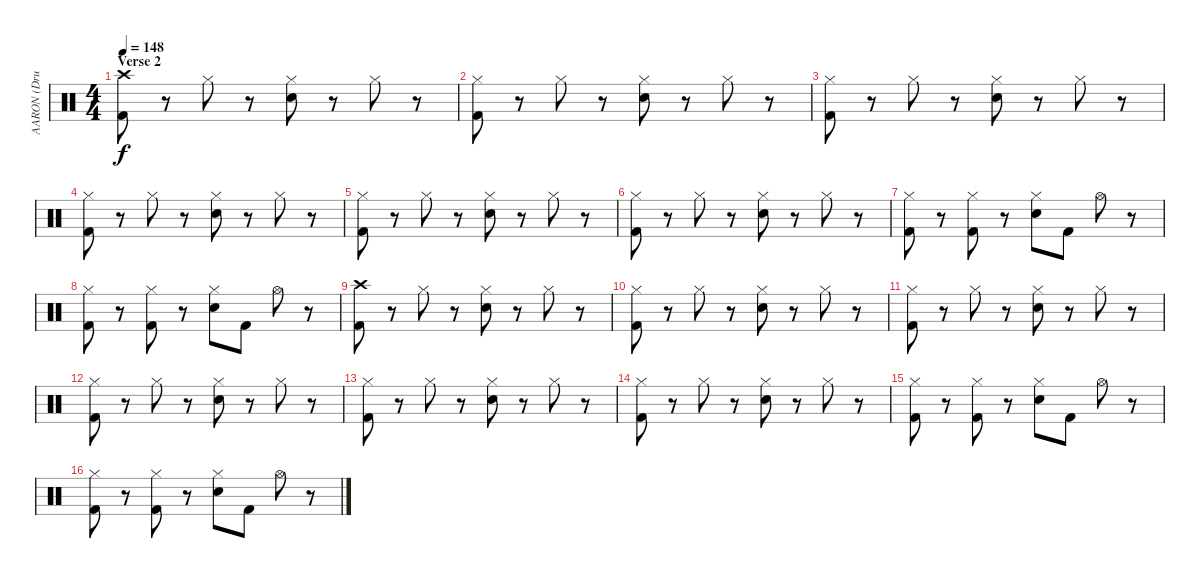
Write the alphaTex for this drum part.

\track ("AARON (Drums)" "AARON (Dru") {instrument percussion}
\staff {score}
\articulation defaults
\ts (4 4)
\section ("" "Verse 2")
\tempo 148
\clef neutral
\ks c
("Crash high (hit)" "Kick (hit) 2").8{dy f} r.8 "Hi-Hat (closed)".8 r.8 ("Hi-Hat (closed)" "Electric Snare (hit)").8 r.8 "Hi-Hat (closed)".8 r.8 |
("Hi-Hat (closed)" "Kick (hit) 2").8 r.8 "Hi-Hat (closed)".8 r.8 ("Hi-Hat (closed)" "Electric Snare (hit)").8 r.8 "Hi-Hat (closed)".8 r.8 |
("Hi-Hat (closed)" "Kick (hit) 2").8 r.8 "Hi-Hat (closed)".8 r.8 ("Hi-Hat (closed)" "Electric Snare (hit)").8 r.8 "Hi-Hat (closed)".8 r.8 |
("Hi-Hat (closed)" "Kick (hit) 2").8 r.8 "Hi-Hat (closed)".8 r.8 ("Hi-Hat (closed)" "Electric Snare (hit)").8 r.8 "Hi-Hat (closed)".8 r.8 |
("Hi-Hat (closed)" "Kick (hit) 2").8 r.8 "Hi-Hat (closed)".8 r.8 ("Hi-Hat (closed)" "Electric Snare (hit)").8 r.8 "Hi-Hat (closed)".8 r.8 |
("Hi-Hat (closed)" "Kick (hit) 2").8 r.8 "Hi-Hat (closed)".8 r.8 ("Hi-Hat (closed)" "Electric Snare (hit)").8 r.8 "Hi-Hat (closed)".8 r.8 |
("Hi-Hat (closed)" "Kick (hit) 2").8 r.8 ("Hi-Hat (closed)" "Kick (hit) 2").8 r.8 ("Hi-Hat (closed)" "Electric Snare (hit)").8 "Kick (hit) 2".8 "Hi-Hat (open)".8 r.8 |
("Hi-Hat (closed)" "Kick (hit) 2").8 r.8 ("Hi-Hat (closed)" "Kick (hit) 2").8 r.8 ("Hi-Hat (closed)" "Electric Snare (hit)").8 "Kick (hit) 2".8 "Hi-Hat (open)".8 r.8 |
("Crash high (hit)" "Kick (hit) 2").8 r.8 "Hi-Hat (closed)".8 r.8 ("Hi-Hat (closed)" "Electric Snare (hit)").8 r.8 "Hi-Hat (closed)".8 r.8 |
("Hi-Hat (closed)" "Kick (hit) 2").8 r.8 "Hi-Hat (closed)".8 r.8 ("Hi-Hat (closed)" "Electric Snare (hit)").8 r.8 "Hi-Hat (closed)".8 r.8 |
("Hi-Hat (closed)" "Kick (hit) 2").8 r.8 "Hi-Hat (closed)".8 r.8 ("Hi-Hat (closed)" "Electric Snare (hit)").8 r.8 "Hi-Hat (closed)".8 r.8 |
("Hi-Hat (closed)" "Kick (hit) 2").8 r.8 "Hi-Hat (closed)".8 r.8 ("Hi-Hat (closed)" "Electric Snare (hit)").8 r.8 "Hi-Hat (closed)".8 r.8 |
("Hi-Hat (closed)" "Kick (hit) 2").8 r.8 "Hi-Hat (closed)".8 r.8 ("Hi-Hat (closed)" "Electric Snare (hit)").8 r.8 "Hi-Hat (closed)".8 r.8 |
("Hi-Hat (closed)" "Kick (hit) 2").8 r.8 "Hi-Hat (closed)".8 r.8 ("Hi-Hat (closed)" "Electric Snare (hit)").8 r.8 "Hi-Hat (closed)".8 r.8 |
("Hi-Hat (closed)" "Kick (hit) 2").8 r.8 ("Hi-Hat (closed)" "Kick (hit) 2").8 r.8 ("Hi-Hat (closed)" "Electric Snare (hit)").8 "Kick (hit) 2".8 "Hi-Hat (open)".8 r.8 |
("Hi-Hat (closed)" "Kick (hit) 2").8 r.8 ("Hi-Hat (closed)" "Kick (hit) 2").8 r.8 ("Hi-Hat (closed)" "Electric Snare (hit)").8 "Kick (hit) 2".8 "Hi-Hat (open)".8 r.8
